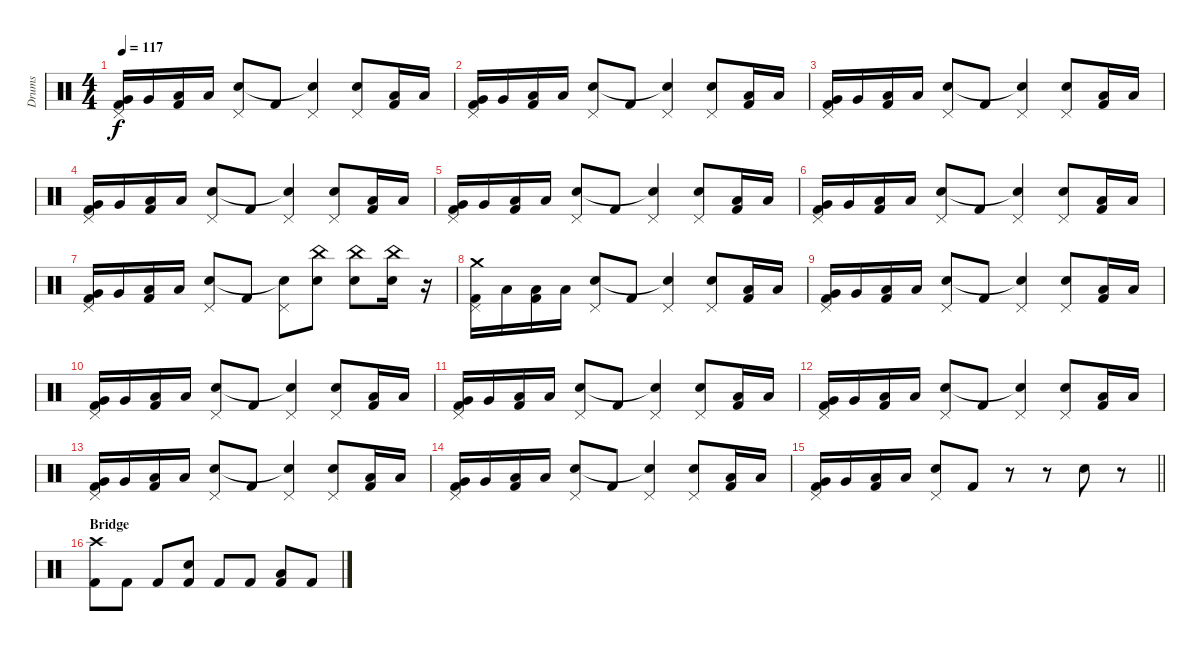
\track ("Drums" "Drums") {instrument percussion}
\staff {score}
\articulation defaults
\ts (4 4)
\tempo 117
\clef neutral
\ks c
("Pedal Hi-Hat (hit)" "Very Low Tom (hit)" "Kick (hit) 2").16{dy f} "Very Low Tom (hit)".16 ("Low Floor Tom (hit)" "Kick (hit) 2").16 "Low Floor Tom (hit)".16 ("Pedal Hi-Hat (hit)" "Snare (hit) 2").8 "Kick (hit) 2".8 ("Pedal Hi-Hat (hit)" "Snare (hit)"{t}).4 ("Pedal Hi-Hat (hit)" "Snare (hit) 2").8 ("Low Tom (hit)" "Kick (hit) 2").16 "Low Tom (hit)".16 |
("Pedal Hi-Hat (hit)" "Very Low Tom (hit)" "Kick (hit) 2").16 "Very Low Tom (hit)".16 ("Low Floor Tom (hit)" "Kick (hit) 2").16 "Low Floor Tom (hit)".16 ("Pedal Hi-Hat (hit)" "Snare (hit) 2").8 "Kick (hit) 2".8 ("Pedal Hi-Hat (hit)" "Snare (hit)"{t}).4 ("Pedal Hi-Hat (hit)" "Snare (hit) 2").8 ("Low Tom (hit)" "Kick (hit) 2").16 "Low Tom (hit)".16 |
("Pedal Hi-Hat (hit)" "Very Low Tom (hit)" "Kick (hit) 2").16 "Very Low Tom (hit)".16 ("Low Floor Tom (hit)" "Kick (hit) 2").16 "Low Floor Tom (hit)".16 ("Pedal Hi-Hat (hit)" "Snare (hit) 2").8 "Kick (hit) 2".8 ("Pedal Hi-Hat (hit)" "Snare (hit)"{t}).4 ("Pedal Hi-Hat (hit)" "Snare (hit) 2").8 ("Low Tom (hit)" "Kick (hit) 2").16 "Low Tom (hit)".16 |
("Pedal Hi-Hat (hit)" "Very Low Tom (hit)" "Kick (hit) 2").16 "Very Low Tom (hit)".16 ("Low Floor Tom (hit)" "Kick (hit) 2").16 "Low Floor Tom (hit)".16 ("Pedal Hi-Hat (hit)" "Snare (hit) 2").8 "Kick (hit) 2".8 ("Pedal Hi-Hat (hit)" "Snare (hit)"{t}).4 ("Pedal Hi-Hat (hit)" "Snare (hit) 2").8 ("Low Tom (hit)" "Kick (hit) 2").16 "Low Tom (hit)".16 |
("Pedal Hi-Hat (hit)" "Very Low Tom (hit)" "Kick (hit) 2").16 "Very Low Tom (hit)".16 ("Low Floor Tom (hit)" "Kick (hit) 2").16 "Low Floor Tom (hit)".16 ("Pedal Hi-Hat (hit)" "Snare (hit) 2").8 "Kick (hit) 2".8 ("Pedal Hi-Hat (hit)" "Snare (hit)"{t}).4 ("Pedal Hi-Hat (hit)" "Snare (hit) 2").8 ("Low Tom (hit)" "Kick (hit) 2").16 "Low Tom (hit)".16 |
("Pedal Hi-Hat (hit)" "Very Low Tom (hit)" "Kick (hit) 2").16 "Very Low Tom (hit)".16 ("Low Floor Tom (hit)" "Kick (hit) 2").16 "Low Floor Tom (hit)".16 ("Pedal Hi-Hat (hit)" "Snare (hit) 2").8 "Kick (hit) 2".8 ("Pedal Hi-Hat (hit)" "Snare (hit)"{t}).4 ("Pedal Hi-Hat (hit)" "Snare (hit) 2").8 ("Low Tom (hit)" "Kick (hit) 2").16 "Low Tom (hit)".16 |
("Pedal Hi-Hat (hit)" "Very Low Tom (hit)" "Kick (hit) 2").16 "Very Low Tom (hit)".16 ("Low Floor Tom (hit)" "Kick (hit) 2").16 "Low Floor Tom (hit)".16 ("Pedal Hi-Hat (hit)" "Snare (hit) 2").8 "Kick (hit) 2".8 ("Pedal Hi-Hat (hit)" "Snare (hit)"{t}).8 ("China (hit)" "Snare (hit) 2").8 ("China (hit)" "Snare (hit) 2").8 ("China (hit)" "Snare (hit) 2").16 r.16 |
("Crash medium (hit)" "Pedal Hi-Hat (hit)" "Kick (hit) 2").16 "Low Tom (hit)".16 ("Low Floor Tom (hit)" "Kick (hit) 2").16 "Low Floor Tom (hit)".16 ("Pedal Hi-Hat (hit)" "Snare (hit) 2").8 "Kick (hit) 2".8 ("Pedal Hi-Hat (hit)" "Snare (hit)"{t}).4 ("Pedal Hi-Hat (hit)" "Snare (hit) 2").8 ("Low Tom (hit)" "Kick (hit) 2").16 "Low Tom (hit)".16 |
("Pedal Hi-Hat (hit)" "Very Low Tom (hit)" "Kick (hit) 2").16 "Very Low Tom (hit)".16 ("Low Floor Tom (hit)" "Kick (hit) 2").16 "Low Floor Tom (hit)".16 ("Pedal Hi-Hat (hit)" "Snare (hit) 2").8 "Kick (hit) 2".8 ("Pedal Hi-Hat (hit)" "Snare (hit)"{t}).4 ("Pedal Hi-Hat (hit)" "Snare (hit) 2").8 ("Low Tom (hit)" "Kick (hit) 2").16 "Low Tom (hit)".16 |
("Pedal Hi-Hat (hit)" "Very Low Tom (hit)" "Kick (hit) 2").16 "Very Low Tom (hit)".16 ("Low Floor Tom (hit)" "Kick (hit) 2").16 "Low Floor Tom (hit)".16 ("Pedal Hi-Hat (hit)" "Snare (hit) 2").8 "Kick (hit) 2".8 ("Pedal Hi-Hat (hit)" "Snare (hit)"{t}).4 ("Pedal Hi-Hat (hit)" "Snare (hit) 2").8 ("Low Tom (hit)" "Kick (hit) 2").16 "Low Tom (hit)".16 |
("Pedal Hi-Hat (hit)" "Very Low Tom (hit)" "Kick (hit) 2").16 "Very Low Tom (hit)".16 ("Low Floor Tom (hit)" "Kick (hit) 2").16 "Low Floor Tom (hit)".16 ("Pedal Hi-Hat (hit)" "Snare (hit) 2").8 "Kick (hit) 2".8 ("Pedal Hi-Hat (hit)" "Snare (hit)"{t}).4 ("Pedal Hi-Hat (hit)" "Snare (hit) 2").8 ("Low Tom (hit)" "Kick (hit) 2").16 "Low Tom (hit)".16 |
("Pedal Hi-Hat (hit)" "Very Low Tom (hit)" "Kick (hit) 2").16 "Very Low Tom (hit)".16 ("Low Floor Tom (hit)" "Kick (hit) 2").16 "Low Floor Tom (hit)".16 ("Pedal Hi-Hat (hit)" "Snare (hit) 2").8 "Kick (hit) 2".8 ("Pedal Hi-Hat (hit)" "Snare (hit)"{t}).4 ("Pedal Hi-Hat (hit)" "Snare (hit) 2").8 ("Low Tom (hit)" "Kick (hit) 2").16 "Low Tom (hit)".16 |
("Pedal Hi-Hat (hit)" "Very Low Tom (hit)" "Kick (hit) 2").16 "Very Low Tom (hit)".16 ("Low Floor Tom (hit)" "Kick (hit) 2").16 "Low Floor Tom (hit)".16 ("Pedal Hi-Hat (hit)" "Snare (hit) 2").8 "Kick (hit) 2".8 ("Pedal Hi-Hat (hit)" "Snare (hit)"{t}).4 ("Pedal Hi-Hat (hit)" "Snare (hit) 2").8 ("Low Tom (hit)" "Kick (hit) 2").16 "Low Tom (hit)".16 |
("Pedal Hi-Hat (hit)" "Very Low Tom (hit)" "Kick (hit) 2").16 "Very Low Tom (hit)".16 ("Low Floor Tom (hit)" "Kick (hit) 2").16 "Low Floor Tom (hit)".16 ("Pedal Hi-Hat (hit)" "Snare (hit) 2").8 "Kick (hit) 2".8 ("Pedal Hi-Hat (hit)" "Snare (hit)"{t}).4 ("Pedal Hi-Hat (hit)" "Snare (hit) 2").8 ("Low Tom (hit)" "Kick (hit) 2").16 "Low Tom (hit)".16 |
\barLineRight lightlight
("Pedal Hi-Hat (hit)" "Very Low Tom (hit)" "Kick (hit) 2").16 "Very Low Tom (hit)".16 ("Low Floor Tom (hit)" "Kick (hit) 2").16 "Low Floor Tom (hit)".16 ("Pedal Hi-Hat (hit)" "Snare (hit) 2").8 "Kick (hit) 2".8 r.8 r.8 "Snare (hit) 2".8 r.8 |
\section ("" "Bridge")
("Crash high (hit)" "Kick (hit) 2").8 "Kick (hit) 2".8 "Kick (hit) 2".8 ("Snare (hit) 2" "Kick (hit) 2").8 "Kick (hit) 2".8 "Kick (hit) 2".8 ("Low Tom (hit)" "Kick (hit) 2").8 "Kick (hit) 2".8
